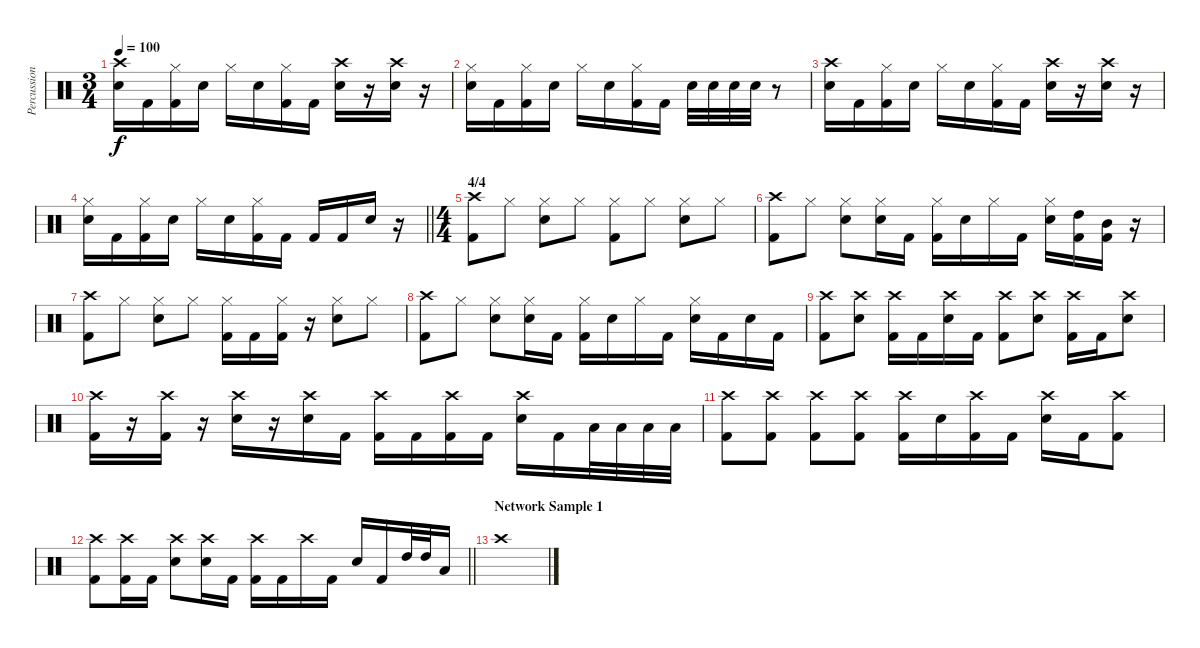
\track ("Percussion" "Percussion") {instrument percussion}
\staff {score}
\articulation defaults
\ts (3 4)
\tempo 100
\clef neutral
\ks c
("Electric Snare (hit)" "Crash high (hit)").16{dy f} "Kick (hit) 2".16 ("Hi-Hat (closed)" "Kick (hit) 2").16 "Electric Snare (hit)".16 "Hi-Hat (closed)".16 "Electric Snare (hit)".16 ("Hi-Hat (closed)" "Kick (hit) 2").16 "Kick (hit) 2".16 ("Electric Snare (hit)" "Crash high (hit)").16 r.16 ("Electric Snare (hit)" "Crash high (hit)").16 r.16 |
("Electric Snare (hit)" "Hi-Hat (closed)").16 "Kick (hit) 2".16 ("Hi-Hat (closed)" "Kick (hit) 2").16 "Electric Snare (hit)".16 "Hi-Hat (closed)".16 "Electric Snare (hit)".16 ("Hi-Hat (closed)" "Kick (hit) 2").16 "Kick (hit) 2".16 "Electric Snare (hit)".32 "Electric Snare (hit)".32 "Electric Snare (hit)".32 "Electric Snare (hit)".32 r.8 |
("Electric Snare (hit)" "Crash high (hit)").16 "Kick (hit) 2".16 ("Hi-Hat (closed)" "Kick (hit) 2").16 "Electric Snare (hit)".16 "Hi-Hat (closed)".16 "Electric Snare (hit)".16 ("Hi-Hat (closed)" "Kick (hit) 2").16 "Kick (hit) 2".16 ("Electric Snare (hit)" "Crash high (hit)").16 r.16 ("Electric Snare (hit)" "Crash high (hit)").16 r.16 |
\barLineRight lightlight
("Electric Snare (hit)" "Hi-Hat (closed)").16 "Kick (hit) 2".16 ("Hi-Hat (closed)" "Kick (hit) 2").16 "Electric Snare (hit)".16 "Hi-Hat (closed)".16 "Electric Snare (hit)".16 ("Hi-Hat (closed)" "Kick (hit) 2").16 "Kick (hit) 2".16 "Kick (hit) 2".16 "Kick (hit) 2".16 "Electric Snare (hit)".16 r.16 |
\ts (4 4)
\section ("" "4/4")
("Crash high (hit)" "Kick (hit) 2").8 "Hi-Hat (closed)".8 ("Electric Snare (hit)" "Hi-Hat (closed)").8 "Hi-Hat (closed)".8 ("Hi-Hat (closed)" "Kick (hit) 2").8 "Hi-Hat (closed)".8 ("Electric Snare (hit)" "Hi-Hat (closed)").8 "Hi-Hat (closed)".8 |
("Crash high (hit)" "Kick (hit) 2").8 "Hi-Hat (closed)".8 ("Electric Snare (hit)" "Hi-Hat (closed)").8 ("Electric Snare (hit)" "Hi-Hat (closed)").16 "Kick (hit) 2".16 ("Hi-Hat (closed)" "Kick (hit) 2").16 "Electric Snare (hit)".16 "Hi-Hat (closed)".16 "Kick (hit) 2".16 ("Electric Snare (hit)" "Hi-Hat (closed)").16 ("High Tom (hit)" "Kick (hit) 2").16 ("Mid Tom (hit)" "Kick (hit) 2").16 r.16 |
("Crash high (hit)" "Kick (hit) 2").8 "Hi-Hat (closed)".8 ("Electric Snare (hit)" "Hi-Hat (closed)").8 "Hi-Hat (closed)".8 ("Hi-Hat (closed)" "Kick (hit) 2").16 "Kick (hit) 2".16 ("Hi-Hat (closed)" "Kick (hit) 2").16 r.16 ("Electric Snare (hit)" "Hi-Hat (closed)").8 "Hi-Hat (closed)".8 |
("Crash high (hit)" "Kick (hit) 2").8 "Hi-Hat (closed)".8 ("Electric Snare (hit)" "Hi-Hat (closed)").8 ("Electric Snare (hit)" "Hi-Hat (closed)").16 "Kick (hit) 2".16 ("Hi-Hat (closed)" "Kick (hit) 2").16 "Electric Snare (hit)".16 "Hi-Hat (closed)".16 "Kick (hit) 2".16 ("Electric Snare (hit)" "Hi-Hat (closed)").16 "Kick (hit) 2".16 "Electric Snare (hit)".16 "Kick (hit) 2".16 |
("Crash high (hit)" "Kick (hit) 2").8 ("Electric Snare (hit)" "Crash high (hit)").8 ("Crash high (hit)" "Kick (hit) 2").16 "Kick (hit) 2".16 ("Electric Snare (hit)" "Crash high (hit)").16 "Kick (hit) 2".16 ("Crash high (hit)" "Kick (hit) 2").8 ("Electric Snare (hit)" "Crash high (hit)").8 ("Crash high (hit)" "Kick (hit) 2").16 "Kick (hit) 2".16 ("Electric Snare (hit)" "Crash high (hit)").8 |
("Crash high (hit)" "Kick (hit) 2").16 r.16 ("Crash high (hit)" "Kick (hit) 2").16 r.16 ("Electric Snare (hit)" "Crash high (hit)").16 r.16 ("Electric Snare (hit)" "Crash high (hit)").16 "Kick (hit) 2".16 ("Crash high (hit)" "Kick (hit) 2").16 "Kick (hit) 2".16 ("Crash high (hit)" "Kick (hit) 2").16 "Kick (hit) 2".16 ("Electric Snare (hit)" "Crash high (hit)").16 "Kick (hit) 2".16 "Low Tom (hit)".32 "Low Tom (hit)".32 "Low Tom (hit)".32 "Low Tom (hit)".32 |
("Crash high (hit)" "Kick (hit) 2").8 ("Crash high (hit)" "Kick (hit) 2").8 ("Crash high (hit)" "Kick (hit) 2").8 ("Crash high (hit)" "Kick (hit) 2").8 ("Crash high (hit)" "Kick (hit) 2").16 "Electric Snare (hit)".16 ("Crash high (hit)" "Kick (hit) 2").16 "Kick (hit) 2".16 ("Electric Snare (hit)" "Crash high (hit)").16 "Kick (hit) 2".16 ("Crash high (hit)" "Kick (hit) 2").8 |
\barLineRight lightlight
("Crash high (hit)" "Kick (hit) 2").8 ("Crash high (hit)" "Kick (hit) 2").16 "Kick (hit) 2".16 ("Electric Snare (hit)" "Crash high (hit)").8 ("Electric Snare (hit)" "Crash high (hit)").16 "Kick (hit) 2".16 ("Crash high (hit)" "Kick (hit) 2").16 "Kick (hit) 2".16 "Crash high (hit)".16 "Kick (hit) 2".16 "Electric Snare (hit)".16 "Kick (hit) 2".16 "High Tom (hit)".32 "High Tom (hit)".32 "Low Floor Tom (hit)".16 |
\section ("" "Network Sample 1")
"Crash high (hit)".1
